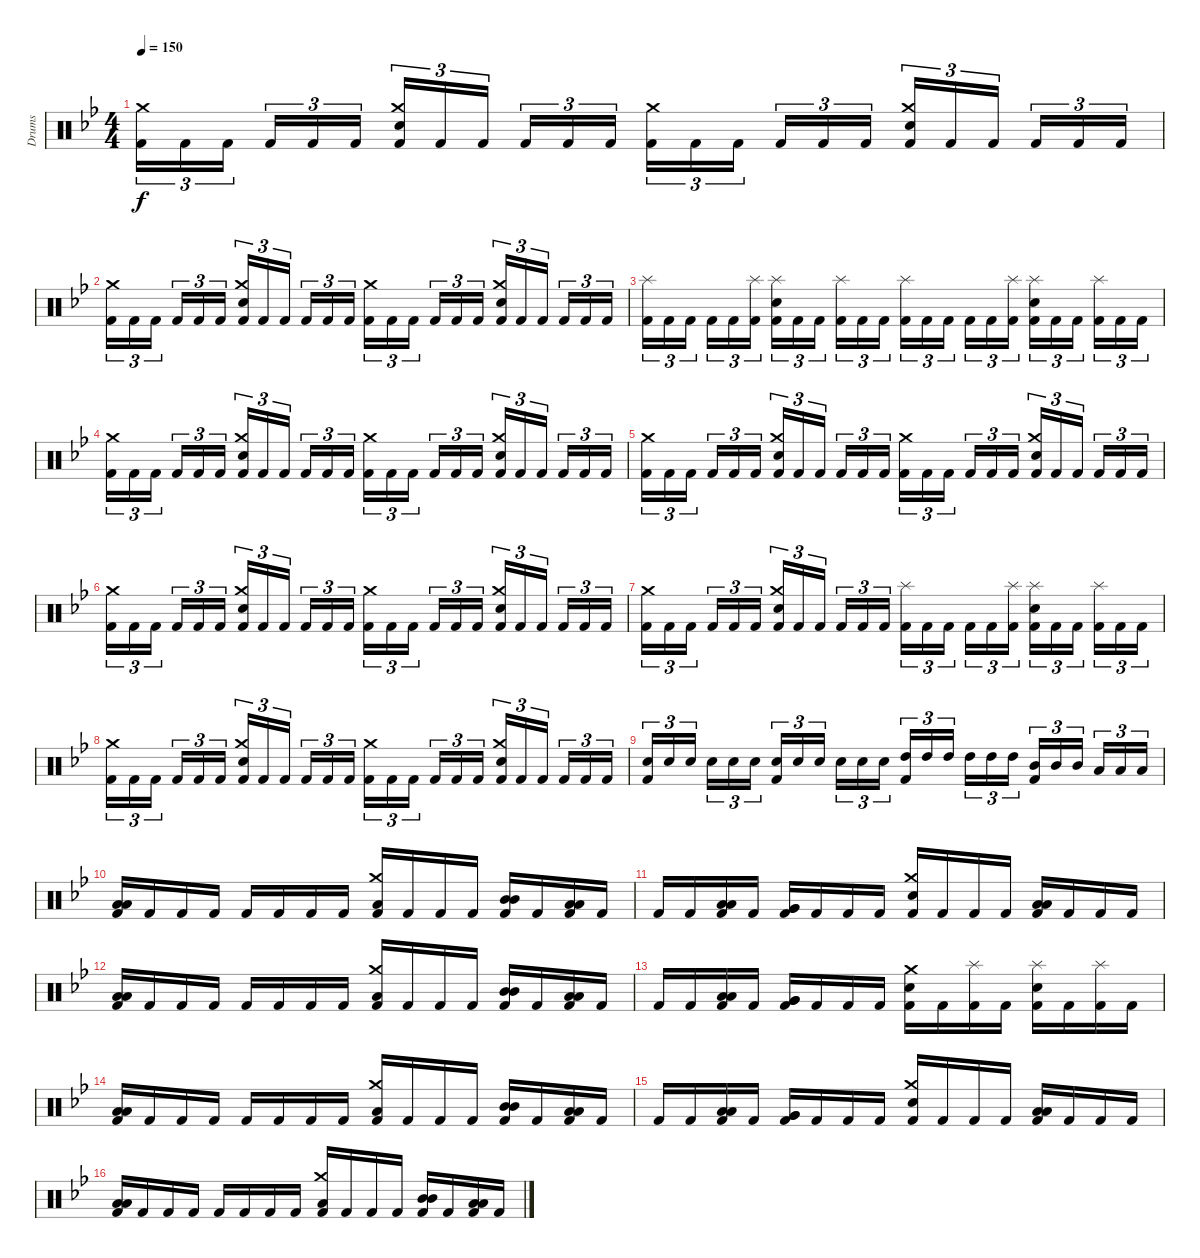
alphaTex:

\track ("Drums" "Drums") {instrument percussion}
\staff {score}
\articulation defaults
\ts (4 4)
\tempo 150
\clef neutral
\ks gminor
("Kick (hit) 2" "Crash medium (hit)").16{tu (3 2) dy f} "Kick (hit) 2".16{tu (3 2)} "Kick (hit) 2".16{tu (3 2) beam splitsecondary} "Kick (hit) 2".16{tu (3 2)} "Kick (hit) 2".16{tu (3 2)} "Kick (hit) 2".16{tu (3 2)} ("Kick (hit) 2" "Snare (hit) 2" "Crash medium (hit)").16{tu (3 2)} "Kick (hit) 2".16{tu (3 2)} "Kick (hit) 2".16{tu (3 2) beam splitsecondary} "Kick (hit) 2".16{tu (3 2)} "Kick (hit) 2".16{tu (3 2)} "Kick (hit) 2".16{tu (3 2)} ("Kick (hit) 2" "Crash medium (hit)").16{tu (3 2)} "Kick (hit) 2".16{tu (3 2)} "Kick (hit) 2".16{tu (3 2) beam splitsecondary} "Kick (hit) 2".16{tu (3 2)} "Kick (hit) 2".16{tu (3 2)} "Kick (hit) 2".16{tu (3 2)} ("Kick (hit) 2" "Snare (hit) 2" "Crash medium (hit)").16{tu (3 2)} "Kick (hit) 2".16{tu (3 2)} "Kick (hit) 2".16{tu (3 2) beam splitsecondary} "Kick (hit) 2".16{tu (3 2)} "Kick (hit) 2".16{tu (3 2)} "Kick (hit) 2".16{tu (3 2)} |
("Kick (hit) 2" "Crash medium (hit)").16{tu (3 2)} "Kick (hit) 2".16{tu (3 2)} "Kick (hit) 2".16{tu (3 2) beam splitsecondary} "Kick (hit) 2".16{tu (3 2)} "Kick (hit) 2".16{tu (3 2)} "Kick (hit) 2".16{tu (3 2)} ("Kick (hit) 2" "Snare (hit) 2" "Crash medium (hit)").16{tu (3 2)} "Kick (hit) 2".16{tu (3 2)} "Kick (hit) 2".16{tu (3 2) beam splitsecondary} "Kick (hit) 2".16{tu (3 2)} "Kick (hit) 2".16{tu (3 2)} "Kick (hit) 2".16{tu (3 2)} ("Kick (hit) 2" "Crash medium (hit)").16{tu (3 2)} "Kick (hit) 2".16{tu (3 2)} "Kick (hit) 2".16{tu (3 2) beam splitsecondary} "Kick (hit) 2".16{tu (3 2)} "Kick (hit) 2".16{tu (3 2)} "Kick (hit) 2".16{tu (3 2)} ("Kick (hit) 2" "Snare (hit) 2" "Crash medium (hit)").16{tu (3 2)} "Kick (hit) 2".16{tu (3 2)} "Kick (hit) 2".16{tu (3 2) beam splitsecondary} "Kick (hit) 2".16{tu (3 2)} "Kick (hit) 2".16{tu (3 2)} "Kick (hit) 2".16{tu (3 2)} |
("Kick (hit) 2" "Splash (hit)").16{tu (3 2)} "Kick (hit) 2".16{tu (3 2)} "Kick (hit) 2".16{tu (3 2) beam splitsecondary} "Kick (hit) 2".16{tu (3 2)} "Kick (hit) 2".16{tu (3 2)} ("Kick (hit) 2" "Splash (hit)").16{tu (3 2)} ("Kick (hit) 2" "Snare (hit) 2" "Splash (hit)").16{tu (3 2)} "Kick (hit) 2".16{tu (3 2)} "Kick (hit) 2".16{tu (3 2) beam splitsecondary} ("Kick (hit) 2" "Splash (hit)").16{tu (3 2)} "Kick (hit) 2".16{tu (3 2)} "Kick (hit) 2".16{tu (3 2)} ("Kick (hit) 2" "Splash (hit)").16{tu (3 2)} "Kick (hit) 2".16{tu (3 2)} "Kick (hit) 2".16{tu (3 2) beam splitsecondary} "Kick (hit) 2".16{tu (3 2)} "Kick (hit) 2".16{tu (3 2)} ("Kick (hit) 2" "Splash (hit)").16{tu (3 2)} ("Kick (hit) 2" "Snare (hit) 2" "Splash (hit)").16{tu (3 2)} "Kick (hit) 2".16{tu (3 2)} "Kick (hit) 2".16{tu (3 2) beam splitsecondary} ("Kick (hit) 2" "Splash (hit)").16{tu (3 2)} "Kick (hit) 2".16{tu (3 2)} "Kick (hit) 2".16{tu (3 2)} |
("Kick (hit) 2" "Crash medium (hit)").16{tu (3 2)} "Kick (hit) 2".16{tu (3 2)} "Kick (hit) 2".16{tu (3 2) beam splitsecondary} "Kick (hit) 2".16{tu (3 2)} "Kick (hit) 2".16{tu (3 2)} "Kick (hit) 2".16{tu (3 2)} ("Kick (hit) 2" "Snare (hit) 2" "Crash medium (hit)").16{tu (3 2)} "Kick (hit) 2".16{tu (3 2)} "Kick (hit) 2".16{tu (3 2) beam splitsecondary} "Kick (hit) 2".16{tu (3 2)} "Kick (hit) 2".16{tu (3 2)} "Kick (hit) 2".16{tu (3 2)} ("Kick (hit) 2" "Crash medium (hit)").16{tu (3 2)} "Kick (hit) 2".16{tu (3 2)} "Kick (hit) 2".16{tu (3 2) beam splitsecondary} "Kick (hit) 2".16{tu (3 2)} "Kick (hit) 2".16{tu (3 2)} "Kick (hit) 2".16{tu (3 2)} ("Kick (hit) 2" "Snare (hit) 2" "Crash medium (hit)").16{tu (3 2)} "Kick (hit) 2".16{tu (3 2)} "Kick (hit) 2".16{tu (3 2) beam splitsecondary} "Kick (hit) 2".16{tu (3 2)} "Kick (hit) 2".16{tu (3 2)} "Kick (hit) 2".16{tu (3 2)} |
("Kick (hit) 2" "Crash medium (hit)").16{tu (3 2)} "Kick (hit) 2".16{tu (3 2)} "Kick (hit) 2".16{tu (3 2) beam splitsecondary} "Kick (hit) 2".16{tu (3 2)} "Kick (hit) 2".16{tu (3 2)} "Kick (hit) 2".16{tu (3 2)} ("Kick (hit) 2" "Snare (hit) 2" "Crash medium (hit)").16{tu (3 2)} "Kick (hit) 2".16{tu (3 2)} "Kick (hit) 2".16{tu (3 2) beam splitsecondary} "Kick (hit) 2".16{tu (3 2)} "Kick (hit) 2".16{tu (3 2)} "Kick (hit) 2".16{tu (3 2)} ("Kick (hit) 2" "Crash medium (hit)").16{tu (3 2)} "Kick (hit) 2".16{tu (3 2)} "Kick (hit) 2".16{tu (3 2) beam splitsecondary} "Kick (hit) 2".16{tu (3 2)} "Kick (hit) 2".16{tu (3 2)} "Kick (hit) 2".16{tu (3 2)} ("Kick (hit) 2" "Snare (hit) 2" "Crash medium (hit)").16{tu (3 2)} "Kick (hit) 2".16{tu (3 2)} "Kick (hit) 2".16{tu (3 2) beam splitsecondary} "Kick (hit) 2".16{tu (3 2)} "Kick (hit) 2".16{tu (3 2)} "Kick (hit) 2".16{tu (3 2)} |
("Kick (hit) 2" "Crash medium (hit)").16{tu (3 2)} "Kick (hit) 2".16{tu (3 2)} "Kick (hit) 2".16{tu (3 2) beam splitsecondary} "Kick (hit) 2".16{tu (3 2)} "Kick (hit) 2".16{tu (3 2)} "Kick (hit) 2".16{tu (3 2)} ("Kick (hit) 2" "Snare (hit) 2" "Crash medium (hit)").16{tu (3 2)} "Kick (hit) 2".16{tu (3 2)} "Kick (hit) 2".16{tu (3 2) beam splitsecondary} "Kick (hit) 2".16{tu (3 2)} "Kick (hit) 2".16{tu (3 2)} "Kick (hit) 2".16{tu (3 2)} ("Kick (hit) 2" "Crash medium (hit)").16{tu (3 2)} "Kick (hit) 2".16{tu (3 2)} "Kick (hit) 2".16{tu (3 2) beam splitsecondary} "Kick (hit) 2".16{tu (3 2)} "Kick (hit) 2".16{tu (3 2)} "Kick (hit) 2".16{tu (3 2)} ("Kick (hit) 2" "Snare (hit) 2" "Crash medium (hit)").16{tu (3 2)} "Kick (hit) 2".16{tu (3 2)} "Kick (hit) 2".16{tu (3 2) beam splitsecondary} "Kick (hit) 2".16{tu (3 2)} "Kick (hit) 2".16{tu (3 2)} "Kick (hit) 2".16{tu (3 2)} |
("Kick (hit) 2" "Crash medium (hit)").16{tu (3 2)} "Kick (hit) 2".16{tu (3 2)} "Kick (hit) 2".16{tu (3 2) beam splitsecondary} "Kick (hit) 2".16{tu (3 2)} "Kick (hit) 2".16{tu (3 2)} "Kick (hit) 2".16{tu (3 2)} ("Kick (hit) 2" "Snare (hit) 2" "Crash medium (hit)").16{tu (3 2)} "Kick (hit) 2".16{tu (3 2)} "Kick (hit) 2".16{tu (3 2) beam splitsecondary} "Kick (hit) 2".16{tu (3 2)} "Kick (hit) 2".16{tu (3 2)} "Kick (hit) 2".16{tu (3 2)} ("Kick (hit) 2" "Splash (hit)").16{tu (3 2)} "Kick (hit) 2".16{tu (3 2)} "Kick (hit) 2".16{tu (3 2) beam splitsecondary} "Kick (hit) 2".16{tu (3 2)} "Kick (hit) 2".16{tu (3 2)} ("Kick (hit) 2" "Splash (hit)").16{tu (3 2)} ("Kick (hit) 2" "Snare (hit) 2" "Splash (hit)").16{tu (3 2)} "Kick (hit) 2".16{tu (3 2)} "Kick (hit) 2".16{tu (3 2) beam splitsecondary} ("Kick (hit) 2" "Splash (hit)").16{tu (3 2)} "Kick (hit) 2".16{tu (3 2)} "Kick (hit) 2".16{tu (3 2)} |
("Kick (hit) 2" "Crash medium (hit)").16{tu (3 2)} "Kick (hit) 2".16{tu (3 2)} "Kick (hit) 2".16{tu (3 2) beam splitsecondary} "Kick (hit) 2".16{tu (3 2)} "Kick (hit) 2".16{tu (3 2)} "Kick (hit) 2".16{tu (3 2)} ("Kick (hit) 2" "Snare (hit) 2" "Crash medium (hit)").16{tu (3 2)} "Kick (hit) 2".16{tu (3 2)} "Kick (hit) 2".16{tu (3 2) beam splitsecondary} "Kick (hit) 2".16{tu (3 2)} "Kick (hit) 2".16{tu (3 2)} "Kick (hit) 2".16{tu (3 2)} ("Kick (hit) 2" "Crash medium (hit)").16{tu (3 2)} "Kick (hit) 2".16{tu (3 2)} "Kick (hit) 2".16{tu (3 2) beam splitsecondary} "Kick (hit) 2".16{tu (3 2)} "Kick (hit) 2".16{tu (3 2)} "Kick (hit) 2".16{tu (3 2)} ("Kick (hit) 2" "Snare (hit) 2" "Crash medium (hit)").16{tu (3 2)} "Kick (hit) 2".16{tu (3 2)} "Kick (hit) 2".16{tu (3 2) beam splitsecondary} "Kick (hit) 2".16{tu (3 2)} "Kick (hit) 2".16{tu (3 2)} "Kick (hit) 2".16{tu (3 2)} |
("Kick (hit) 2" "Snare (hit) 2").16{tu (3 2)} "Snare (hit) 2".16{tu (3 2)} "Snare (hit) 2".16{tu (3 2) beam splitsecondary} "Snare (hit) 2".16{tu (3 2)} "Snare (hit) 2".16{tu (3 2)} "Snare (hit) 2".16{tu (3 2)} ("Kick (hit) 2" "Snare (hit) 2").16{tu (3 2)} "Snare (hit) 2".16{tu (3 2)} "Snare (hit) 2".16{tu (3 2) beam splitsecondary} "Snare (hit) 2".16{tu (3 2)} "Snare (hit) 2".16{tu (3 2)} "Snare (hit) 2".16{tu (3 2)} ("Kick (hit) 2" "High Tom (hit)").16{tu (3 2)} "High Tom (hit)".16{tu (3 2)} "High Tom (hit)".16{tu (3 2) beam splitsecondary} "High Tom (hit)".16{tu (3 2)} "High Tom (hit)".16{tu (3 2)} "High Tom (hit)".16{tu (3 2)} ("Kick (hit) 2" "Mid Tom (hit)").16{tu (3 2)} "Mid Tom (hit)".16{tu (3 2)} "Mid Tom (hit)".16{tu (3 2) beam splitsecondary} "Low Tom (hit)".16{tu (3 2)} "Low Tom (hit)".16{tu (3 2)} "Low Tom (hit)".16{tu (3 2)} |
("Kick (hit) 2" "Low Floor Tom (hit)" "Low Floor Tom (hit)").16 "Kick (hit) 2".16 "Kick (hit) 2".16 "Kick (hit) 2".16 "Kick (hit) 2".16 "Kick (hit) 2".16 "Kick (hit) 2".16 "Kick (hit) 2".16 ("Kick (hit) 2" "Low Floor Tom (hit)" "Crash medium (hit)").16 "Kick (hit) 2".16 "Kick (hit) 2".16 "Kick (hit) 2".16 ("Kick (hit) 2" "Mid Tom (hit)" "Mid Tom (hit)").16 "Kick (hit) 2".16 ("Kick (hit) 2" "Low Tom (hit)" "Low Tom (hit)").16 "Kick (hit) 2".16 |
"Kick (hit) 2".16 "Kick (hit) 2".16 ("Kick (hit) 2" "Low Tom (hit)" "Low Tom (hit)").16 "Kick (hit) 2".16 ("Kick (hit) 2" "Very Low Tom (hit)" "Very Low Tom (hit)").16 "Kick (hit) 2".16 "Kick (hit) 2".16 "Kick (hit) 2".16 ("Kick (hit) 2" "Snare (hit) 2" "Crash medium (hit)").16 "Kick (hit) 2".16 "Kick (hit) 2".16 "Kick (hit) 2".16 ("Kick (hit) 2" "Low Floor Tom (hit)" "Low Floor Tom (hit)").16 "Kick (hit) 2".16 "Kick (hit) 2".16 "Kick (hit) 2".16 |
("Kick (hit) 2" "Low Floor Tom (hit)" "Low Floor Tom (hit)").16 "Kick (hit) 2".16 "Kick (hit) 2".16 "Kick (hit) 2".16 "Kick (hit) 2".16 "Kick (hit) 2".16 "Kick (hit) 2".16 "Kick (hit) 2".16 ("Kick (hit) 2" "Low Floor Tom (hit)" "Crash medium (hit)").16 "Kick (hit) 2".16 "Kick (hit) 2".16 "Kick (hit) 2".16 ("Kick (hit) 2" "Mid Tom (hit)" "Mid Tom (hit)").16 "Kick (hit) 2".16 ("Kick (hit) 2" "Low Tom (hit)" "Low Tom (hit)").16 "Kick (hit) 2".16 |
"Kick (hit) 2".16 "Kick (hit) 2".16 ("Kick (hit) 2" "Low Tom (hit)" "Low Tom (hit)").16 "Kick (hit) 2".16 ("Kick (hit) 2" "Very Low Tom (hit)" "Very Low Tom (hit)").16 "Kick (hit) 2".16 "Kick (hit) 2".16 "Kick (hit) 2".16 ("Kick (hit) 2" "Snare (hit) 2" "Crash medium (hit)").16 "Kick (hit) 2".16 ("Kick (hit) 2" "Splash (hit)").16 "Kick (hit) 2".16 ("Kick (hit) 2" "Snare (hit) 2" "Splash (hit)").16 "Kick (hit) 2".16 ("Kick (hit) 2" "Splash (hit)").16 "Kick (hit) 2".16 |
("Kick (hit) 2" "Low Floor Tom (hit)" "Low Floor Tom (hit)").16 "Kick (hit) 2".16 "Kick (hit) 2".16 "Kick (hit) 2".16 "Kick (hit) 2".16 "Kick (hit) 2".16 "Kick (hit) 2".16 "Kick (hit) 2".16 ("Kick (hit) 2" "Low Floor Tom (hit)" "Crash medium (hit)").16 "Kick (hit) 2".16 "Kick (hit) 2".16 "Kick (hit) 2".16 ("Kick (hit) 2" "Mid Tom (hit)" "Mid Tom (hit)").16 "Kick (hit) 2".16 ("Kick (hit) 2" "Low Tom (hit)" "Low Tom (hit)").16 "Kick (hit) 2".16 |
"Kick (hit) 2".16 "Kick (hit) 2".16 ("Kick (hit) 2" "Low Tom (hit)" "Low Tom (hit)").16 "Kick (hit) 2".16 ("Kick (hit) 2" "Very Low Tom (hit)" "Very Low Tom (hit)").16 "Kick (hit) 2".16 "Kick (hit) 2".16 "Kick (hit) 2".16 ("Kick (hit) 2" "Snare (hit) 2" "Crash medium (hit)").16 "Kick (hit) 2".16 "Kick (hit) 2".16 "Kick (hit) 2".16 ("Kick (hit) 2" "Low Floor Tom (hit)" "Low Floor Tom (hit)").16 "Kick (hit) 2".16 "Kick (hit) 2".16 "Kick (hit) 2".16 |
("Kick (hit) 2" "Low Floor Tom (hit)" "Low Floor Tom (hit)").16 "Kick (hit) 2".16 "Kick (hit) 2".16 "Kick (hit) 2".16 "Kick (hit) 2".16 "Kick (hit) 2".16 "Kick (hit) 2".16 "Kick (hit) 2".16 ("Kick (hit) 2" "Low Floor Tom (hit)" "Crash medium (hit)").16 "Kick (hit) 2".16 "Kick (hit) 2".16 "Kick (hit) 2".16 ("Kick (hit) 2" "Mid Tom (hit)" "Mid Tom (hit)").16 "Kick (hit) 2".16 ("Kick (hit) 2" "Low Tom (hit)" "Low Tom (hit)").16 "Kick (hit) 2".16
